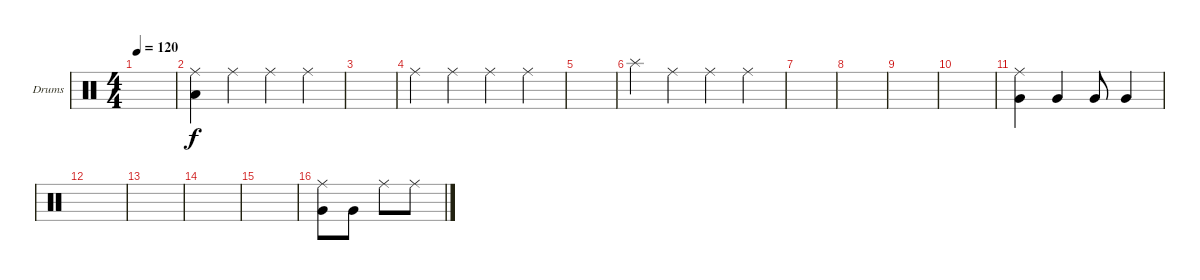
\defaultSystemsLayout 4
\bracketExtendMode groupsimilarinstruments
\firstSystemTrackNameOrientation horizontal
\otherSystemsTrackNameOrientation horizontal
\track ("Drumkit" "Drums") {instrument percussion}
\staff {score}
\articulation defaults
\ts (4 4)
\tempo 120
\clef neutral
\scale
0.474178
\ks c
|
\scale
0.262911 ("Ride (middle)" "Low Tom (hit)").4 "Ride (middle)".4 "Ride (middle)".4 "Ride (middle)".4 |
\scale
0.262911 |
"Ride (middle)".4 "Ride (middle)".4 "Ride (middle)".4 "Ride (middle)".4 |
|
"Splash (hit)".4 "Ride (middle)".4 "Ride (middle)".4 "Ride (middle)".4 |
|
|
|
|
("Ride (middle)" "Very Low Tom (hit)").4 "Very Low Tom (hit)".4 "Very Low Tom (hit)".8 "Very Low Tom (hit)".4 |
\scale
0.333333 |
\scale
0.333333 |
|
|
("Ride (middle)" "Very Low Tom (hit)").8 "Very Low Tom (hit)".8 "Ride (middle)".8 "Ride (middle)".8
